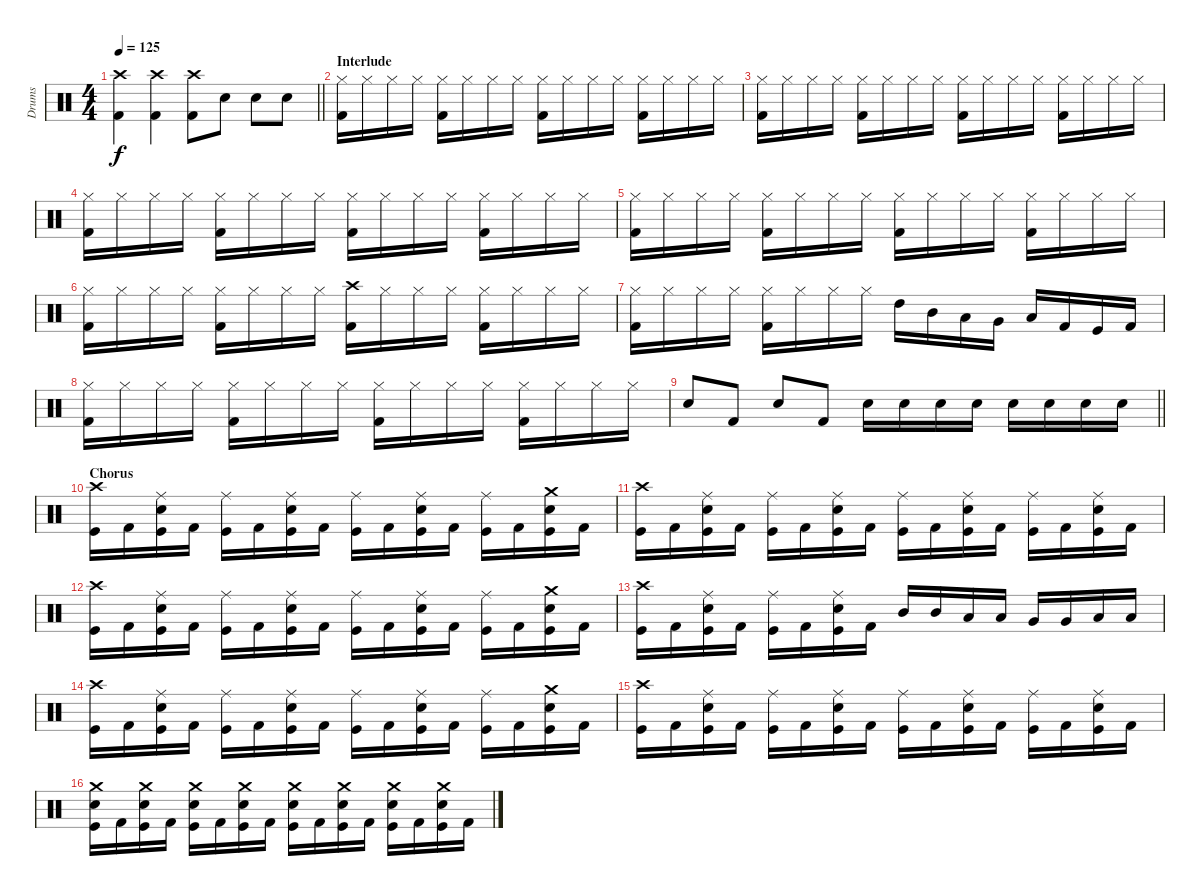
\track ("Drums" "Drums") {instrument percussion}
\staff {score}
\articulation defaults
\ts (4 4)
\tempo 125
\clef neutral
\barLineRight lightlight
\ks c
("Crash high (hit)" "Kick (hit) 2").4{dy f} ("Crash high (hit)" "Kick (hit) 2").4 ("Crash high (hit)" "Kick (hit) 2").8 "Electric Snare (hit)".8 "Electric Snare (hit)".8 "Electric Snare (hit)".8 |
\section ("" "Interlude")
("Hi-Hat (closed)" "Kick (hit) 2").16 "Hi-Hat (closed)".16 "Hi-Hat (closed)".16 "Hi-Hat (closed)".16 ("Hi-Hat (closed)" "Kick (hit) 2").16 "Hi-Hat (closed)".16 "Hi-Hat (closed)".16 "Hi-Hat (closed)".16 ("Hi-Hat (closed)" "Kick (hit) 2").16 "Hi-Hat (closed)".16 "Hi-Hat (closed)".16 "Hi-Hat (closed)".16 ("Hi-Hat (closed)" "Kick (hit) 2").16 "Hi-Hat (closed)".16 "Hi-Hat (closed)".16 "Hi-Hat (closed)".16 |
("Hi-Hat (closed)" "Kick (hit) 2").16 "Hi-Hat (closed)".16 "Hi-Hat (closed)".16 "Hi-Hat (closed)".16 ("Hi-Hat (closed)" "Kick (hit) 2").16 "Hi-Hat (closed)".16 "Hi-Hat (closed)".16 "Hi-Hat (closed)".16 ("Hi-Hat (closed)" "Kick (hit) 2").16 "Hi-Hat (closed)".16 "Hi-Hat (closed)".16 "Hi-Hat (closed)".16 ("Hi-Hat (closed)" "Kick (hit) 2").16 "Hi-Hat (closed)".16 "Hi-Hat (closed)".16 "Hi-Hat (closed)".16 |
("Hi-Hat (closed)" "Kick (hit) 2").16 "Hi-Hat (closed)".16 "Hi-Hat (closed)".16 "Hi-Hat (closed)".16 ("Hi-Hat (closed)" "Kick (hit) 2").16 "Hi-Hat (closed)".16 "Hi-Hat (closed)".16 "Hi-Hat (closed)".16 ("Hi-Hat (closed)" "Kick (hit) 2").16 "Hi-Hat (closed)".16 "Hi-Hat (closed)".16 "Hi-Hat (closed)".16 ("Hi-Hat (closed)" "Kick (hit) 2").16 "Hi-Hat (closed)".16 "Hi-Hat (closed)".16 "Hi-Hat (closed)".16 |
("Hi-Hat (closed)" "Kick (hit) 2").16 "Hi-Hat (closed)".16 "Hi-Hat (closed)".16 "Hi-Hat (closed)".16 ("Hi-Hat (closed)" "Kick (hit) 2").16 "Hi-Hat (closed)".16 "Hi-Hat (closed)".16 "Hi-Hat (closed)".16 ("Hi-Hat (closed)" "Kick (hit) 2").16 "Hi-Hat (closed)".16 "Hi-Hat (closed)".16 "Hi-Hat (closed)".16 ("Hi-Hat (closed)" "Kick (hit) 2").16 "Hi-Hat (closed)".16 "Hi-Hat (closed)".16 "Hi-Hat (closed)".16 |
("Hi-Hat (closed)" "Kick (hit) 2").16 "Hi-Hat (closed)".16 "Hi-Hat (closed)".16 "Hi-Hat (closed)".16 ("Hi-Hat (closed)" "Kick (hit) 2").16 "Hi-Hat (closed)".16 "Hi-Hat (closed)".16 "Hi-Hat (closed)".16 ("Crash high (hit)" "Kick (hit) 2").16 "Hi-Hat (closed)".16 "Hi-Hat (closed)".16 "Hi-Hat (closed)".16 ("Hi-Hat (closed)" "Kick (hit) 2").16 "Hi-Hat (closed)".16 "Hi-Hat (closed)".16 "Hi-Hat (closed)".16 |
("Hi-Hat (closed)" "Kick (hit) 2").16 "Hi-Hat (closed)".16 "Hi-Hat (closed)".16 "Hi-Hat (closed)".16 ("Hi-Hat (closed)" "Kick (hit) 2").16 "Hi-Hat (closed)".16 "Hi-Hat (closed)".16 "Hi-Hat (closed)".16 "High Tom (hit)".16 "Mid Tom (hit)".16 "Low Tom (hit)".16 "Very Low Tom (hit)".16 "Low Floor Tom (hit)".16 "Kick (hit) 2".16 "Kick (hit)".16 "Kick (hit) 2".16 |
("Hi-Hat (closed)" "Kick (hit) 2").16 "Hi-Hat (closed)".16 "Hi-Hat (closed)".16 "Hi-Hat (closed)".16 ("Hi-Hat (closed)" "Kick (hit) 2").16 "Hi-Hat (closed)".16 "Hi-Hat (closed)".16 "Hi-Hat (closed)".16 ("Hi-Hat (closed)" "Kick (hit) 2").16 "Hi-Hat (closed)".16 "Hi-Hat (closed)".16 "Hi-Hat (closed)".16 ("Hi-Hat (closed)" "Kick (hit) 2").16 "Hi-Hat (closed)".16 "Hi-Hat (closed)".16 "Hi-Hat (closed)".16 |
\barLineRight lightlight "Electric Snare (hit)".8 "Kick (hit) 2".8 "Electric Snare (hit)".8 "Kick (hit) 2".8 "Electric Snare (hit)".16 "Electric Snare (hit)".16 "Electric Snare (hit)".16 "Electric Snare (hit)".16 "Electric Snare (hit)".16 "Electric Snare (hit)".16 "Electric Snare (hit)".16 "Electric Snare (hit)".16
|
\section ("" "Chorus")
("Crash high (hit)" "Kick (hit)").16 "Kick (hit) 2".16 ("Ride (middle)" "Electric Snare (hit)" "Kick (hit)").16 "Kick (hit) 2".16 ("Ride (middle)" "Kick (hit)").16 "Kick (hit) 2".16 ("Ride (middle)" "Electric Snare (hit)" "Kick (hit)").16 "Kick (hit) 2".16 ("Ride (middle)" "Kick (hit)").16 "Kick (hit) 2".16 ("Ride (middle)" "Electric Snare (hit)" "Kick (hit)").16 "Kick (hit) 2".16 ("Ride (middle)" "Kick (hit)").16 "Kick (hit) 2".16 ("Crash medium (hit)" "Electric Snare (hit)" "Kick (hit)").16 "Kick (hit) 2".16 |
("Crash high (hit)" "Kick (hit)").16 "Kick (hit) 2".16 ("Ride (middle)" "Electric Snare (hit)" "Kick (hit)").16 "Kick (hit) 2".16 ("Ride (middle)" "Kick (hit)").16 "Kick (hit) 2".16 ("Ride (middle)" "Electric Snare (hit)" "Kick (hit)").16 "Kick (hit) 2".16 ("Ride (middle)" "Kick (hit)").16 "Kick (hit) 2".16 ("Ride (middle)" "Electric Snare (hit)" "Kick (hit)").16 "Kick (hit) 2".16 ("Ride (middle)" "Kick (hit)").16 "Kick (hit) 2".16 ("Ride (middle)" "Electric Snare (hit)" "Kick (hit)").16 "Kick (hit) 2".16 |
("Crash high (hit)" "Kick (hit)").16 "Kick (hit) 2".16 ("Ride (middle)" "Electric Snare (hit)" "Kick (hit)").16 "Kick (hit) 2".16 ("Ride (middle)" "Kick (hit)").16 "Kick (hit) 2".16 ("Ride (middle)" "Electric Snare (hit)" "Kick (hit)").16 "Kick (hit) 2".16 ("Ride (middle)" "Kick (hit)").16 "Kick (hit) 2".16 ("Ride (middle)" "Electric Snare (hit)" "Kick (hit)").16 "Kick (hit) 2".16 ("Ride (middle)" "Kick (hit)").16 "Kick (hit) 2".16 ("Crash medium (hit)" "Electric Snare (hit)" "Kick (hit)").16 "Kick (hit) 2".16 |
("Crash high (hit)" "Kick (hit)").16 "Kick (hit) 2".16 ("Ride (middle)" "Electric Snare (hit)" "Kick (hit)").16 "Kick (hit) 2".16 ("Ride (middle)" "Kick (hit)").16 "Kick (hit) 2".16 ("Ride (middle)" "Electric Snare (hit)" "Kick (hit)").16 "Kick (hit) 2".16 "Mid Tom (hit)".16 "Mid Tom (hit)".16 "Low Tom (hit)".16 "Low Tom (hit)".16 "Very Low Tom (hit)".16 "Very Low Tom (hit)".16 "Low Floor Tom (hit)".16 "Low Floor Tom (hit)".16 |
("Crash high (hit)" "Kick (hit)").16 "Kick (hit) 2".16 ("Ride (middle)" "Electric Snare (hit)" "Kick (hit)").16 "Kick (hit) 2".16 ("Ride (middle)" "Kick (hit)").16 "Kick (hit) 2".16 ("Ride (middle)" "Electric Snare (hit)" "Kick (hit)").16 "Kick (hit) 2".16 ("Ride (middle)" "Kick (hit)").16 "Kick (hit) 2".16 ("Ride (middle)" "Electric Snare (hit)" "Kick (hit)").16 "Kick (hit) 2".16 ("Ride (middle)" "Kick (hit)").16 "Kick (hit) 2".16 ("Crash medium (hit)" "Electric Snare (hit)" "Kick (hit)").16 "Kick (hit) 2".16 |
("Crash high (hit)" "Kick (hit)").16 "Kick (hit) 2".16 ("Ride (middle)" "Electric Snare (hit)" "Kick (hit)").16 "Kick (hit) 2".16 ("Ride (middle)" "Kick (hit)").16 "Kick (hit) 2".16 ("Ride (middle)" "Electric Snare (hit)" "Kick (hit)").16 "Kick (hit) 2".16 ("Ride (middle)" "Kick (hit)").16 "Kick (hit) 2".16 ("Ride (middle)" "Electric Snare (hit)" "Kick (hit)").16 "Kick (hit) 2".16 ("Ride (middle)" "Kick (hit)").16 "Kick (hit) 2".16 ("Ride (middle)" "Electric Snare (hit)" "Kick (hit)").16 "Kick (hit) 2".16 |
("Crash medium (hit)" "Electric Snare (hit)" "Kick (hit)").16 "Kick (hit) 2".16 ("Crash medium (hit)" "Electric Snare (hit)" "Kick (hit)").16 "Kick (hit) 2".16 ("Crash medium (hit)" "Electric Snare (hit)" "Kick (hit)").16 "Kick (hit) 2".16 ("Crash medium (hit)" "Electric Snare (hit)" "Kick (hit)").16 "Kick (hit) 2".16 ("Crash medium (hit)" "Electric Snare (hit)" "Kick (hit)").16 "Kick (hit) 2".16 ("Crash medium (hit)" "Electric Snare (hit)" "Kick (hit)").16 "Kick (hit) 2".16 ("Crash medium (hit)" "Electric Snare (hit)" "Kick (hit)").16 "Kick (hit) 2".16 ("Crash medium (hit)" "Electric Snare (hit)" "Kick (hit)").16 "Kick (hit) 2".16
